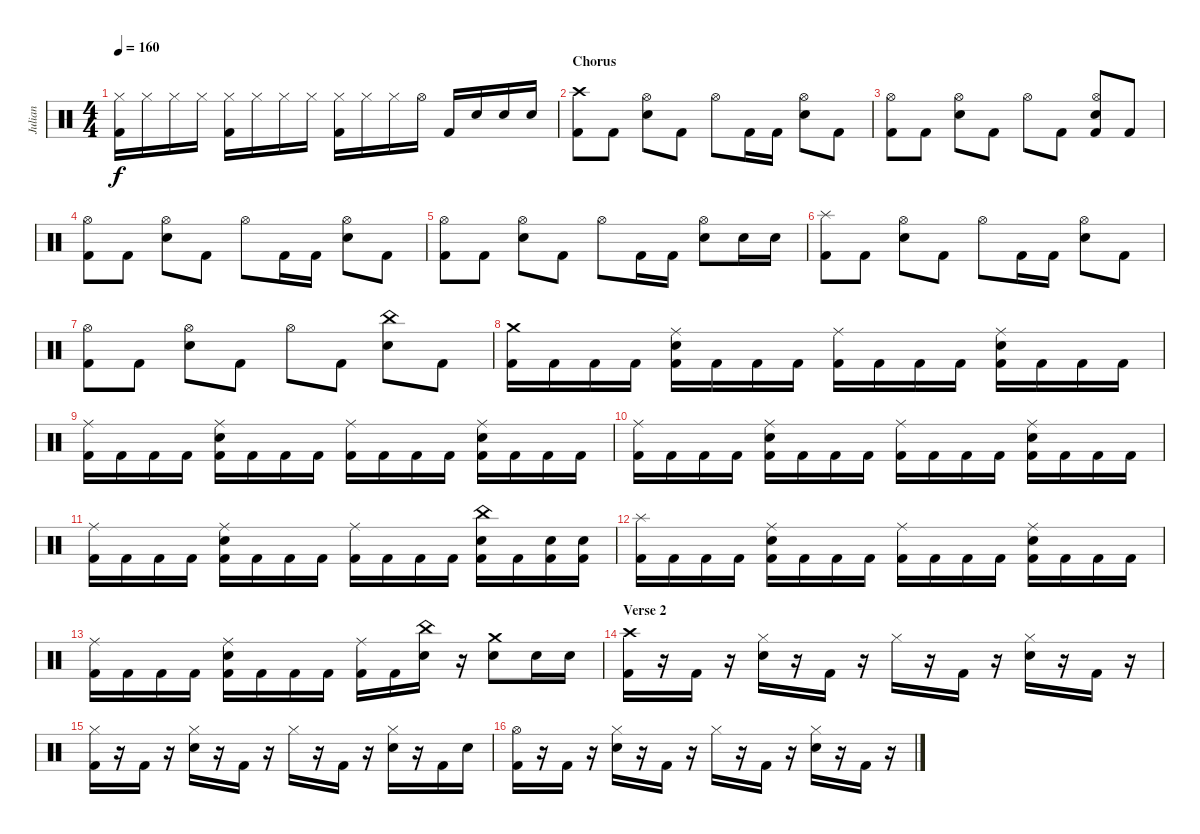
\track ("Julian" "Julian") {instrument percussion}
\staff {score}
\articulation defaults
\ts (4 4)
\tempo 160
\clef neutral
\ks c
("Hi-Hat (closed)" "Kick (hit) 2").16{dy f} "Hi-Hat (closed)".16 "Hi-Hat (closed)".16 "Hi-Hat (closed)".16 ("Hi-Hat (closed)" "Kick (hit) 2").16 "Hi-Hat (closed)".16 "Hi-Hat (closed)".16 "Hi-Hat (closed)".16 ("Hi-Hat (closed)" "Kick (hit) 2").16 "Hi-Hat (closed)".16 "Hi-Hat (closed)".16 "Hi-Hat (open)".16 "Kick (hit) 2".16 "Electric Snare (hit)".16 "Electric Snare (hit)".16 "Electric Snare (hit)".16 |
\section ("" "Chorus")
("Crash high (hit)" "Kick (hit) 2").8 "Kick (hit) 2".8 ("Hi-Hat (open)" "Electric Snare (hit)").8 "Kick (hit) 2".8 "Hi-Hat (open)".8 "Kick (hit) 2".16 "Kick (hit) 2".16 ("Hi-Hat (open)" "Electric Snare (hit)").8 "Kick (hit) 2".8 |
("Hi-Hat (open)" "Kick (hit) 2").8 "Kick (hit) 2".8 ("Hi-Hat (open)" "Electric Snare (hit)").8 "Kick (hit) 2".8 "Hi-Hat (open)".8 "Kick (hit) 2".8 ("Hi-Hat (open)" "Electric Snare (hit)" "Kick (hit) 2").8 "Kick (hit) 2".8 |
("Hi-Hat (open)" "Kick (hit) 2").8 "Kick (hit) 2".8 ("Hi-Hat (open)" "Electric Snare (hit)").8 "Kick (hit) 2".8 "Hi-Hat (open)".8 "Kick (hit) 2".16 "Kick (hit) 2".16 ("Hi-Hat (open)" "Electric Snare (hit)").8 "Kick (hit) 2".8 |
("Hi-Hat (open)" "Kick (hit) 2").8 "Kick (hit) 2".8 ("Hi-Hat (open)" "Electric Snare (hit)").8 "Kick (hit) 2".8 "Hi-Hat (open)".8 "Kick (hit) 2".16 "Kick (hit) 2".16 ("Hi-Hat (open)" "Electric Snare (hit)").8 "Electric Snare (hit)".16 "Electric Snare (hit)".16 |
("Splash (hit)" "Kick (hit) 2").8 "Kick (hit) 2".8 ("Hi-Hat (open)" "Electric Snare (hit)").8 "Kick (hit) 2".8 "Hi-Hat (open)".8 "Kick (hit) 2".16 "Kick (hit) 2".16 ("Hi-Hat (open)" "Electric Snare (hit)").8 "Kick (hit) 2".8 |
("Hi-Hat (open)" "Kick (hit) 2").8 "Kick (hit) 2".8 ("Hi-Hat (open)" "Electric Snare (hit)").8 "Kick (hit) 2".8 "Hi-Hat (open)".8 "Kick (hit) 2".8 ("China (hit)" "Electric Snare (hit)").8 "Kick (hit) 2".8 |
("Crash medium (hit)" "Kick (hit) 2").16 "Kick (hit) 2".16 "Kick (hit) 2".16 "Kick (hit) 2".16 ("Ride (middle)" "Electric Snare (hit)" "Kick (hit) 2").16 "Kick (hit) 2".16 "Kick (hit) 2".16 "Kick (hit) 2".16 ("Ride (middle)" "Kick (hit) 2").16 "Kick (hit) 2".16 "Kick (hit) 2".16 "Kick (hit) 2".16 ("Ride (middle)" "Electric Snare (hit)" "Kick (hit) 2").16 "Kick (hit) 2".16 "Kick (hit) 2".16 "Kick (hit) 2".16 |
("Ride (middle)" "Kick (hit) 2").16 "Kick (hit) 2".16 "Kick (hit) 2".16 "Kick (hit) 2".16 ("Ride (middle)" "Electric Snare (hit)" "Kick (hit) 2").16 "Kick (hit) 2".16 "Kick (hit) 2".16 "Kick (hit) 2".16 ("Ride (middle)" "Kick (hit) 2").16 "Kick (hit) 2".16 "Kick (hit) 2".16 "Kick (hit) 2".16 ("Ride (middle)" "Electric Snare (hit)" "Kick (hit) 2").16 "Kick (hit) 2".16 "Kick (hit) 2".16 "Kick (hit) 2".16 |
("Ride (middle)" "Kick (hit) 2").16 "Kick (hit) 2".16 "Kick (hit) 2".16 "Kick (hit) 2".16 ("Ride (middle)" "Electric Snare (hit)" "Kick (hit) 2").16 "Kick (hit) 2".16 "Kick (hit) 2".16 "Kick (hit) 2".16 ("Ride (middle)" "Kick (hit) 2").16 "Kick (hit) 2".16 "Kick (hit) 2".16 "Kick (hit) 2".16 ("Ride (middle)" "Electric Snare (hit)" "Kick (hit) 2").16 "Kick (hit) 2".16 "Kick (hit) 2".16 "Kick (hit) 2".16 |
("Ride (middle)" "Kick (hit) 2").16 "Kick (hit) 2".16 "Kick (hit) 2".16 "Kick (hit) 2".16 ("Ride (middle)" "Electric Snare (hit)" "Kick (hit) 2").16 "Kick (hit) 2".16 "Kick (hit) 2".16 "Kick (hit) 2".16 ("Ride (middle)" "Kick (hit) 2").16 "Kick (hit) 2".16 "Kick (hit) 2".16 "Kick (hit) 2".16 ("China (hit)" "Electric Snare (hit)" "Kick (hit) 2").16 "Kick (hit) 2".16 ("Electric Snare (hit)" "Kick (hit) 2").16 ("Electric Snare (hit)" "Kick (hit) 2").16 |
("Splash (hit)" "Kick (hit) 2").16 "Kick (hit) 2".16 "Kick (hit) 2".16 "Kick (hit) 2".16 ("Ride (middle)" "Electric Snare (hit)" "Kick (hit) 2").16 "Kick (hit) 2".16 "Kick (hit) 2".16 "Kick (hit) 2".16 ("Ride (middle)" "Kick (hit) 2").16 "Kick (hit) 2".16 "Kick (hit) 2".16 "Kick (hit) 2".16 ("Ride (middle)" "Electric Snare (hit)" "Kick (hit) 2").16 "Kick (hit) 2".16 "Kick (hit) 2".16 "Kick (hit) 2".16 |
("Ride (middle)" "Kick (hit) 2").16 "Kick (hit) 2".16 "Kick (hit) 2".16 "Kick (hit) 2".16 ("Ride (middle)" "Electric Snare (hit)" "Kick (hit) 2").16 "Kick (hit) 2".16 "Kick (hit) 2".16 "Kick (hit) 2".16 ("Ride (middle)" "Kick (hit) 2").16 "Kick (hit) 2".16 ("China (hit)" "Electric Snare (hit)").16 r.16 ("Crash medium (hit)" "Electric Snare (hit)").8 "Electric Snare (hit)".16 "Electric Snare (hit)".16 |
\section ("" "Verse 2")
("Crash high (hit)" "Kick (hit) 2").16 r.16 "Kick (hit) 2".16 r.16 ("Hi-Hat (closed)" "Electric Snare (hit)").16 r.16 "Kick (hit) 2".16 r.16 "Hi-Hat (closed)".16 r.16 "Kick (hit) 2".16 r.16 ("Hi-Hat (closed)" "Electric Snare (hit)").16 r.16 "Kick (hit) 2".16 r.16 |
("Hi-Hat (closed)" "Kick (hit) 2").16 r.16 "Kick (hit) 2".16 r.16 ("Hi-Hat (closed)" "Electric Snare (hit)").16 r.16 "Kick (hit) 2".16 r.16 "Hi-Hat (closed)".16 r.16 "Kick (hit) 2".16 r.16 ("Hi-Hat (closed)" "Electric Snare (hit)").16 r.16 "Kick (hit) 2".16 "Electric Snare (hit)".16 |
("Hi-Hat (open)" "Kick (hit) 2").16 r.16 "Kick (hit) 2".16 r.16 ("Hi-Hat (closed)" "Electric Snare (hit)").16 r.16 "Kick (hit) 2".16 r.16 "Hi-Hat (closed)".16 r.16 "Kick (hit) 2".16 r.16 ("Hi-Hat (closed)" "Electric Snare (hit)").16 r.16 "Kick (hit) 2".16 r.16
